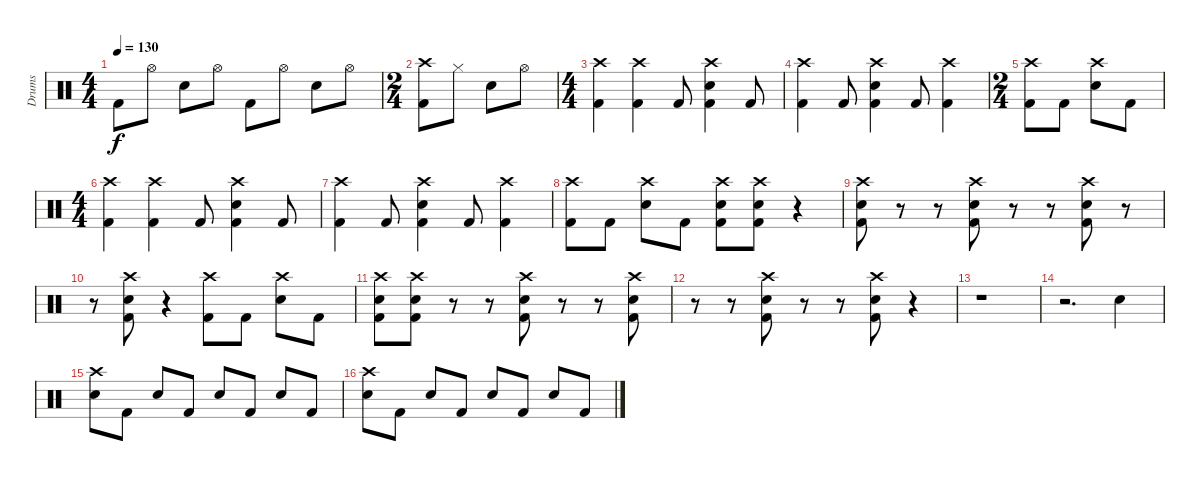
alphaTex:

\track ("Drums" "Drums") {instrument percussion}
\staff {score}
\articulation defaults
\ts (4 4)
\tempo 130
\clef neutral
\ks c "Kick (hit) 2".8{dy f} "Hi-Hat (open)".8 "Electric Snare (hit)".8 "Hi-Hat (open)".8 "Kick (hit) 2".8 "Hi-Hat (open)".8 "Electric Snare (hit)".8 "Hi-Hat (open)".8
|
\ts (2 4)
("Crash high (hit)" "Kick (hit) 2").8 "Hi-Hat (closed)".8 "Electric Snare (hit)".8 "Hi-Hat (open)".8 |
\ts (4 4)
("Crash high (hit)" "Kick (hit) 2").4 ("Crash high (hit)" "Kick (hit) 2").4 "Kick (hit) 2".8 ("Crash high (hit)" "Electric Snare (hit)" "Kick (hit) 2").4 "Kick (hit) 2".8 |
("Crash high (hit)" "Kick (hit) 2").4 "Kick (hit) 2".8 ("Crash high (hit)" "Electric Snare (hit)" "Kick (hit) 2").4 "Kick (hit) 2".8 ("Crash high (hit)" "Kick (hit) 2").4 |
\ts (2 4)
("Crash high (hit)" "Kick (hit) 2").8 "Kick (hit) 2".8 ("Crash high (hit)" "Electric Snare (hit)").8 "Kick (hit) 2".8 |
\ts (4 4)
("Crash high (hit)" "Kick (hit) 2").4 ("Crash high (hit)" "Kick (hit) 2").4 "Kick (hit) 2".8 ("Crash high (hit)" "Electric Snare (hit)" "Kick (hit) 2").4 "Kick (hit) 2".8 |
("Crash high (hit)" "Kick (hit) 2").4 "Kick (hit) 2".8 ("Crash high (hit)" "Electric Snare (hit)" "Kick (hit) 2").4 "Kick (hit) 2".8 ("Crash high (hit)" "Kick (hit) 2").4 |
("Crash high (hit)" "Kick (hit) 2").8 "Kick (hit) 2".8 ("Crash high (hit)" "Electric Snare (hit)").8 "Kick (hit) 2".8 ("Crash high (hit)" "Electric Snare (hit)" "Kick (hit) 2").8 ("Crash high (hit)" "Electric Snare (hit)" "Kick (hit) 2").8 r.4 |
("Crash high (hit)" "Electric Snare (hit)" "Kick (hit) 2").8 r.8 r.8 ("Crash high (hit)" "Electric Snare (hit)" "Kick (hit) 2").8 r.8 r.8 ("Crash high (hit)" "Electric Snare (hit)" "Kick (hit) 2").8 r.8 |
r.8 ("Crash high (hit)" "Electric Snare (hit)" "Kick (hit) 2").8 r.4 ("Crash high (hit)" "Kick (hit) 2").8 "Kick (hit) 2".8 ("Crash high (hit)" "Electric Snare (hit)").8 "Kick (hit) 2".8 |
("Crash high (hit)" "Electric Snare (hit)" "Kick (hit) 2").8 ("Crash high (hit)" "Electric Snare (hit)" "Kick (hit) 2").8 r.8 r.8 ("Crash high (hit)" "Electric Snare (hit)" "Kick (hit) 2").8 r.8 r.8 ("Crash high (hit)" "Electric Snare (hit)" "Kick (hit) 2").8 |
r.8 r.8 ("Crash high (hit)" "Electric Snare (hit)" "Kick (hit) 2").8 r.8 r.8 ("Crash high (hit)" "Electric Snare (hit)" "Kick (hit) 2").8 r.4 |
r.1 |
r.2{d} "Electric Snare (hit)".4 |
("Crash high (hit)" "Electric Snare (hit)").8 "Kick (hit) 2".8 "Electric Snare (hit)".8 "Kick (hit) 2".8 "Electric Snare (hit)".8 "Kick (hit) 2".8 "Electric Snare (hit)".8 "Kick (hit) 2".8 |
("Crash high (hit)" "Electric Snare (hit)").8 "Kick (hit) 2".8 "Electric Snare (hit)".8 "Kick (hit) 2".8 "Electric Snare (hit)".8 "Kick (hit) 2".8 "Electric Snare (hit)".8 "Kick (hit) 2".8
